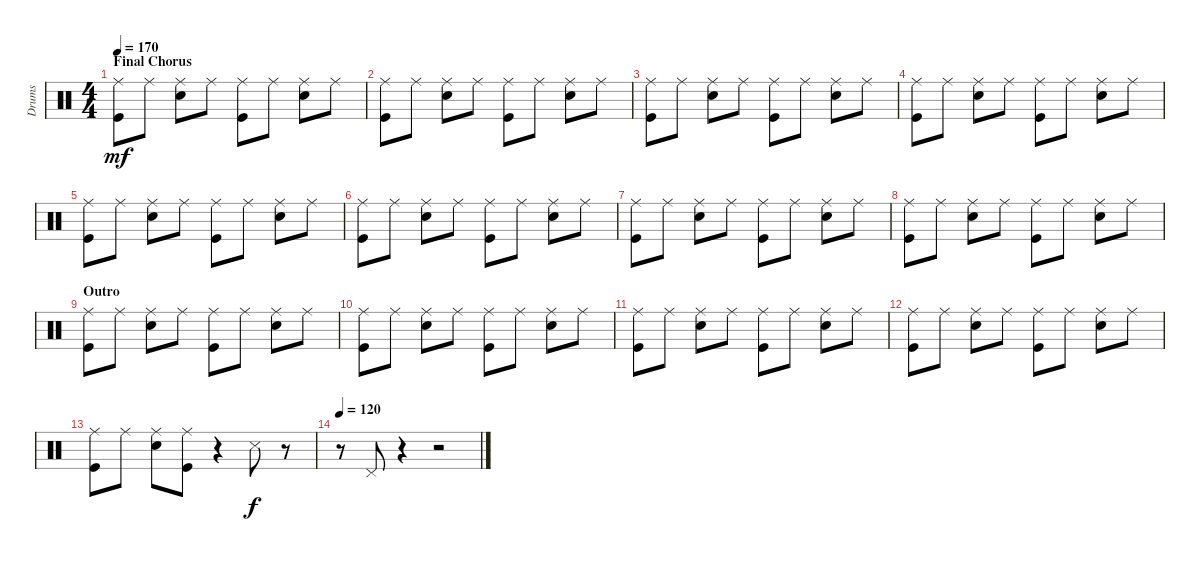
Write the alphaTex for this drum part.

\track ("Drums" "Drums") {instrument percussion}
\staff {score}
\articulation defaults
\ts (4 4)
\section ("" "Final Chorus")
\tempo 170
\clef neutral
\ks c
("Ride (middle)" "Kick (hit)").8{dy mf} "Ride (middle)".8 ("Ride (middle)" "Snare (hit) 2").8 "Ride (middle)".8 ("Ride (middle)" "Kick (hit)").8 "Ride (middle)".8 ("Ride (middle)" "Snare (hit) 2").8 "Ride (middle)".8 |
("Ride (middle)" "Kick (hit)").8 "Ride (middle)".8 ("Ride (middle)" "Snare (hit) 2").8 "Ride (middle)".8 ("Ride (middle)" "Kick (hit)").8 "Ride (middle)".8 ("Ride (middle)" "Snare (hit) 2").8 "Ride (middle)".8 |
("Ride (middle)" "Kick (hit)").8 "Ride (middle)".8 ("Ride (middle)" "Snare (hit) 2").8 "Ride (middle)".8 ("Ride (middle)" "Kick (hit)").8 "Ride (middle)".8 ("Ride (middle)" "Snare (hit) 2").8 "Ride (middle)".8 |
("Ride (middle)" "Kick (hit)").8 "Ride (middle)".8 ("Ride (middle)" "Snare (hit) 2").8 "Ride (middle)".8 ("Ride (middle)" "Kick (hit)").8 "Ride (middle)".8 ("Ride (middle)" "Snare (hit) 2").8 "Ride (middle)".8 |
("Ride (middle)" "Kick (hit)").8 "Ride (middle)".8 ("Ride (middle)" "Snare (hit) 2").8 "Ride (middle)".8 ("Ride (middle)" "Kick (hit)").8 "Ride (middle)".8 ("Ride (middle)" "Snare (hit) 2").8 "Ride (middle)".8 |
("Ride (middle)" "Kick (hit)").8 "Ride (middle)".8 ("Ride (middle)" "Snare (hit) 2").8 "Ride (middle)".8 ("Ride (middle)" "Kick (hit)").8 "Ride (middle)".8 ("Ride (middle)" "Snare (hit) 2").8 "Ride (middle)".8 |
("Ride (middle)" "Kick (hit)").8 "Ride (middle)".8 ("Ride (middle)" "Snare (hit) 2").8 "Ride (middle)".8 ("Ride (middle)" "Kick (hit)").8 "Ride (middle)".8 ("Ride (middle)" "Snare (hit) 2").8 "Ride (middle)".8 |
("Ride (middle)" "Kick (hit)").8 "Ride (middle)".8 ("Ride (middle)" "Snare (hit) 2").8 "Ride (middle)".8 ("Ride (middle)" "Kick (hit)").8 "Ride (middle)".8 ("Ride (middle)" "Snare (hit) 2").8 "Ride (middle)".8 |
\section ("" "Outro")
("Ride (middle)" "Kick (hit)").8 "Ride (middle)".8 ("Ride (middle)" "Snare (hit) 2").8 "Ride (middle)".8 ("Ride (middle)" "Kick (hit)").8 "Ride (middle)".8 ("Ride (middle)" "Snare (hit) 2").8 "Ride (middle)".8 |
("Ride (middle)" "Kick (hit)").8 "Ride (middle)".8 ("Ride (middle)" "Snare (hit) 2").8 "Ride (middle)".8 ("Ride (middle)" "Kick (hit)").8 "Ride (middle)".8 ("Ride (middle)" "Snare (hit) 2").8 "Ride (middle)".8 |
("Ride (middle)" "Kick (hit)").8 "Ride (middle)".8 ("Ride (middle)" "Snare (hit) 2").8 "Ride (middle)".8 ("Ride (middle)" "Kick (hit)").8 "Ride (middle)".8 ("Ride (middle)" "Snare (hit) 2").8 "Ride (middle)".8 |
("Ride (middle)" "Kick (hit)").8 "Ride (middle)".8 ("Ride (middle)" "Snare (hit) 2").8 "Ride (middle)".8 ("Ride (middle)" "Kick (hit)").8 "Ride (middle)".8 ("Ride (middle)" "Snare (hit) 2").8 "Ride (middle)".8 |
("Ride (middle)" "Kick (hit)").8 "Ride (middle)".8 ("Ride (middle)" "Snare (hit) 2").8 ("Ride (middle)" "Kick (hit)").8 r.4 "Snare (side stick) 3".8{dy f} r.8 |
\tempo 120
r.8 "Pedal Hi-Hat (hit)".8 r.4 r.2
